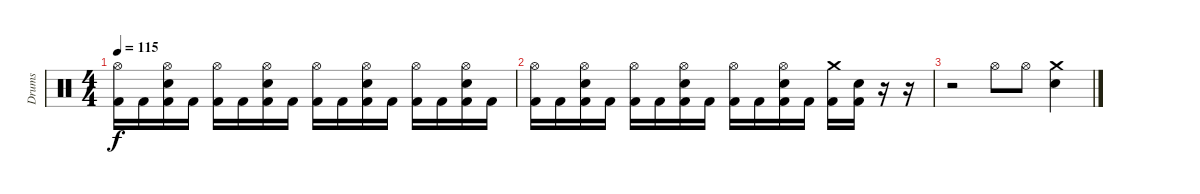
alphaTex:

\track ("Drums" "Drums") {instrument percussion}
\staff {score}
\articulation defaults
\ts (4 4)
\tempo 115
\clef neutral
\ks c
("Hi-Hat (open)" "Kick (hit) 2").16{dy f} "Kick (hit) 2".16 ("Hi-Hat (open)" "Electric Snare (hit)" "Kick (hit) 2").16 "Kick (hit) 2".16 ("Hi-Hat (open)" "Kick (hit) 2").16 "Kick (hit) 2".16 ("Hi-Hat (open)" "Electric Snare (hit)" "Kick (hit) 2").16 "Kick (hit) 2".16 ("Hi-Hat (open)" "Kick (hit) 2").16 "Kick (hit) 2".16 ("Hi-Hat (open)" "Electric Snare (hit)" "Kick (hit) 2").16 "Kick (hit) 2".16 ("Hi-Hat (open)" "Kick (hit) 2").16 "Kick (hit) 2".16 ("Hi-Hat (open)" "Electric Snare (hit)" "Kick (hit) 2").16 "Kick (hit) 2".16 |
("Hi-Hat (open)" "Kick (hit) 2").16 "Kick (hit) 2".16 ("Hi-Hat (open)" "Electric Snare (hit)" "Kick (hit) 2").16 "Kick (hit) 2".16 ("Hi-Hat (open)" "Kick (hit) 2").16 "Kick (hit) 2".16 ("Hi-Hat (open)" "Electric Snare (hit)" "Kick (hit) 2").16 "Kick (hit) 2".16 ("Hi-Hat (open)" "Kick (hit) 2").16 "Kick (hit) 2".16 ("Hi-Hat (open)" "Electric Snare (hit)" "Kick (hit) 2").16 "Kick (hit) 2".16 ("Crash medium (hit)" "Kick (hit) 2").16 ("Electric Snare (hit)" "Kick (hit) 2").16 r.16 r.16 |
r.2 "Hi-Hat (open)".8 "Hi-Hat (open)".8 ("Crash medium (hit)" "Electric Snare (hit)").4
